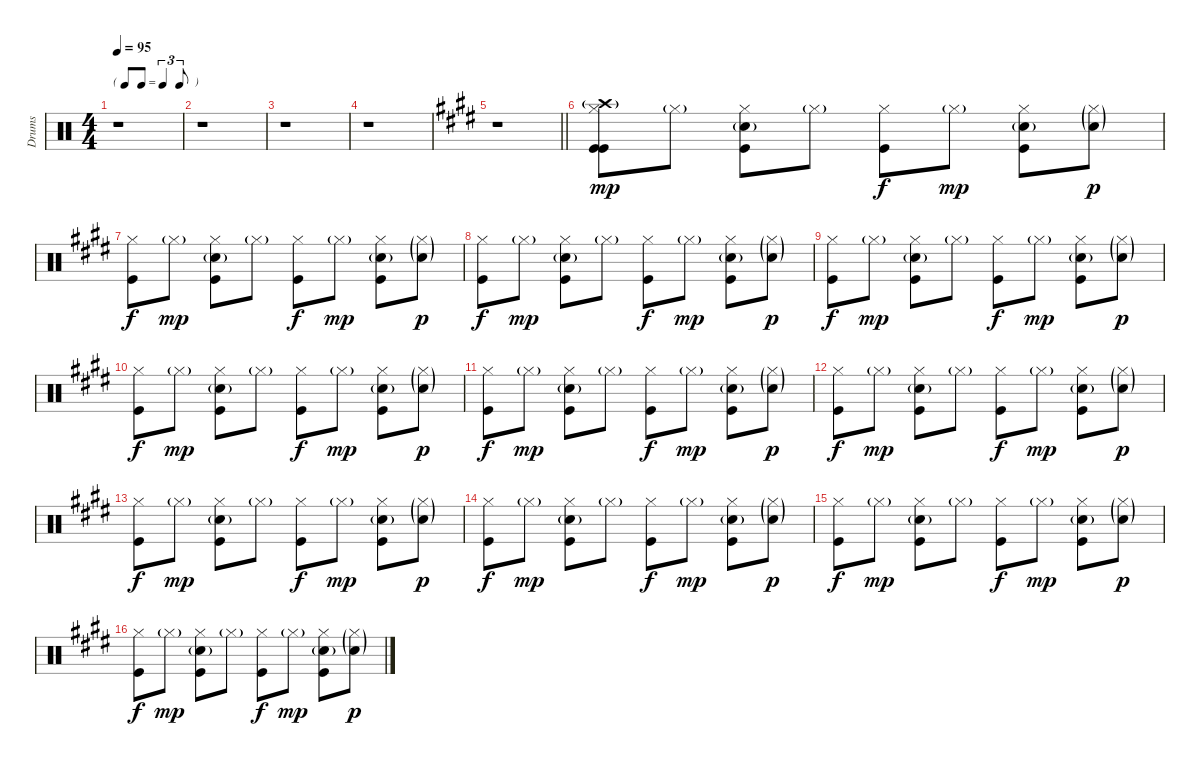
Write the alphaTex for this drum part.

\track ("Drums" "Drums") {instrument percussion}
\staff {score}
\articulation defaults
\ts (4 4)
\tf triplet8th
\tempo 95
\clef neutral
\ks c
r.1{dy mp} |
r.1 |
r.1 |
r.1 |
\barLineRight lightlight
\ks e
r.1 |
("Hi-Hat (closed)" "Crash high (hit)"{g} "Kick (hit)" "Kick (hit)").8 "Hi-Hat (closed)"{g}.8 ("Hi-Hat (closed)" "Snare (hit) 2"{g} "Kick (hit)").8 "Hi-Hat (closed)"{g}.8 ("Hi-Hat (closed)" "Kick (hit)").8{dy f} "Hi-Hat (closed)"{g}.8{dy mp} ("Hi-Hat (closed)" "Snare (hit) 2"{g} "Kick (hit)").8 ("Hi-Hat (closed)"{g} "Snare (hit) 2"{g}).8{dy p} |
("Hi-Hat (closed)" "Kick (hit)").8{dy f} "Hi-Hat (closed)"{g}.8{dy mp} ("Hi-Hat (closed)" "Snare (hit) 2"{g} "Kick (hit)").8 "Hi-Hat (closed)"{g}.8 ("Hi-Hat (closed)" "Kick (hit)").8{dy f} "Hi-Hat (closed)"{g}.8{dy mp} ("Hi-Hat (closed)" "Snare (hit) 2"{g} "Kick (hit)").8 ("Hi-Hat (closed)"{g} "Snare (hit) 2"{g}).8{dy p} |
("Hi-Hat (closed)" "Kick (hit)").8{dy f} "Hi-Hat (closed)"{g}.8{dy mp} ("Hi-Hat (closed)" "Snare (hit) 2"{g} "Kick (hit)").8 "Hi-Hat (closed)"{g}.8 ("Hi-Hat (closed)" "Kick (hit)").8{dy f} "Hi-Hat (closed)"{g}.8{dy mp} ("Hi-Hat (closed)" "Snare (hit) 2"{g} "Kick (hit)").8 ("Hi-Hat (closed)"{g} "Snare (hit) 2"{g}).8{dy p} |
("Hi-Hat (closed)" "Kick (hit)").8{dy f} "Hi-Hat (closed)"{g}.8{dy mp} ("Hi-Hat (closed)" "Snare (hit) 2"{g} "Kick (hit)").8 "Hi-Hat (closed)"{g}.8 ("Hi-Hat (closed)" "Kick (hit)").8{dy f} "Hi-Hat (closed)"{g}.8{dy mp} ("Hi-Hat (closed)" "Snare (hit) 2"{g} "Kick (hit)").8 ("Hi-Hat (closed)"{g} "Snare (hit) 2"{g}).8{dy p} |
("Hi-Hat (closed)" "Kick (hit)").8{dy f} "Hi-Hat (closed)"{g}.8{dy mp} ("Hi-Hat (closed)" "Snare (hit) 2"{g} "Kick (hit)").8 "Hi-Hat (closed)"{g}.8 ("Hi-Hat (closed)" "Kick (hit)").8{dy f} "Hi-Hat (closed)"{g}.8{dy mp} ("Hi-Hat (closed)" "Snare (hit) 2"{g} "Kick (hit)").8 ("Hi-Hat (closed)"{g} "Snare (hit) 2"{g}).8{dy p} |
("Hi-Hat (closed)" "Kick (hit)").8{dy f} "Hi-Hat (closed)"{g}.8{dy mp} ("Hi-Hat (closed)" "Snare (hit) 2"{g} "Kick (hit)").8 "Hi-Hat (closed)"{g}.8 ("Hi-Hat (closed)" "Kick (hit)").8{dy f} "Hi-Hat (closed)"{g}.8{dy mp} ("Hi-Hat (closed)" "Snare (hit) 2"{g} "Kick (hit)").8 ("Hi-Hat (closed)"{g} "Snare (hit) 2"{g}).8{dy p} |
("Hi-Hat (closed)" "Kick (hit)").8{dy f} "Hi-Hat (closed)"{g}.8{dy mp} ("Hi-Hat (closed)" "Snare (hit) 2"{g} "Kick (hit)").8 "Hi-Hat (closed)"{g}.8 ("Hi-Hat (closed)" "Kick (hit)").8{dy f} "Hi-Hat (closed)"{g}.8{dy mp} ("Hi-Hat (closed)" "Snare (hit) 2"{g} "Kick (hit)").8 ("Hi-Hat (closed)"{g} "Snare (hit) 2"{g}).8{dy p} |
("Hi-Hat (closed)" "Kick (hit)").8{dy f} "Hi-Hat (closed)"{g}.8{dy mp} ("Hi-Hat (closed)" "Snare (hit) 2"{g} "Kick (hit)").8 "Hi-Hat (closed)"{g}.8 ("Hi-Hat (closed)" "Kick (hit)").8{dy f} "Hi-Hat (closed)"{g}.8{dy mp} ("Hi-Hat (closed)" "Snare (hit) 2"{g} "Kick (hit)").8 ("Hi-Hat (closed)"{g} "Snare (hit) 2"{g}).8{dy p} |
("Hi-Hat (closed)" "Kick (hit)").8{dy f} "Hi-Hat (closed)"{g}.8{dy mp} ("Hi-Hat (closed)" "Snare (hit) 2"{g} "Kick (hit)").8 "Hi-Hat (closed)"{g}.8 ("Hi-Hat (closed)" "Kick (hit)").8{dy f} "Hi-Hat (closed)"{g}.8{dy mp} ("Hi-Hat (closed)" "Snare (hit) 2"{g} "Kick (hit)").8 ("Hi-Hat (closed)"{g} "Snare (hit) 2"{g}).8{dy p} |
("Hi-Hat (closed)" "Kick (hit)").8{dy f} "Hi-Hat (closed)"{g}.8{dy mp} ("Hi-Hat (closed)" "Snare (hit) 2"{g} "Kick (hit)").8 "Hi-Hat (closed)"{g}.8 ("Hi-Hat (closed)" "Kick (hit)").8{dy f} "Hi-Hat (closed)"{g}.8{dy mp} ("Hi-Hat (closed)" "Snare (hit) 2"{g} "Kick (hit)").8 ("Hi-Hat (closed)"{g} "Snare (hit) 2"{g}).8{dy p} |
("Hi-Hat (closed)" "Kick (hit)").8{dy f} "Hi-Hat (closed)"{g}.8{dy mp} ("Hi-Hat (closed)" "Snare (hit) 2"{g} "Kick (hit)").8 "Hi-Hat (closed)"{g}.8 ("Hi-Hat (closed)" "Kick (hit)").8{dy f} "Hi-Hat (closed)"{g}.8{dy mp} ("Hi-Hat (closed)" "Snare (hit) 2"{g} "Kick (hit)").8 ("Hi-Hat (closed)"{g} "Snare (hit) 2"{g}).8{dy p}
